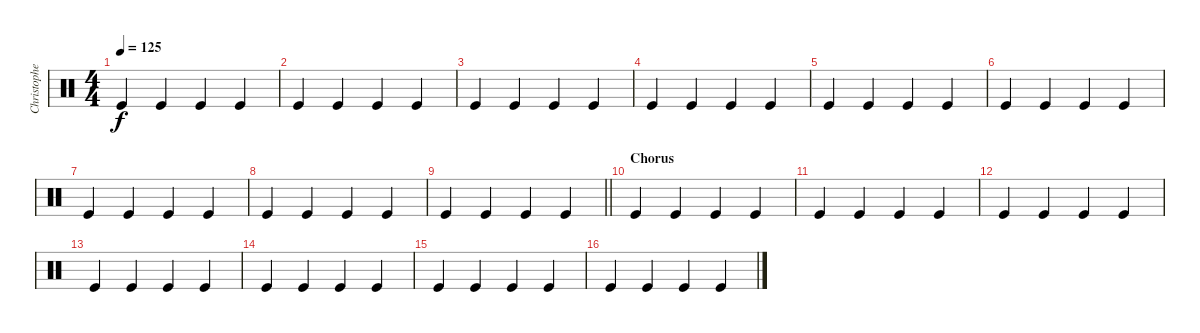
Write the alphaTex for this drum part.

\track ("Christopher - Drums" "Christophe") {instrument percussion}
\staff {score}
\articulation defaults
\ts (4 4)
\tempo 125
\clef neutral
\ks c "Kick (hit)".4{dy f} "Kick (hit)".4 "Kick (hit)".4 "Kick (hit)".4
|
"Kick (hit)".4 "Kick (hit)".4 "Kick (hit)".4 "Kick (hit)".4 |
"Kick (hit)".4 "Kick (hit)".4 "Kick (hit)".4 "Kick (hit)".4 |
"Kick (hit)".4 "Kick (hit)".4 "Kick (hit)".4 "Kick (hit)".4 |
"Kick (hit)".4 "Kick (hit)".4 "Kick (hit)".4 "Kick (hit)".4 |
"Kick (hit)".4 "Kick (hit)".4 "Kick (hit)".4 "Kick (hit)".4 |
"Kick (hit)".4 "Kick (hit)".4 "Kick (hit)".4 "Kick (hit)".4 |
"Kick (hit)".4 "Kick (hit)".4 "Kick (hit)".4 "Kick (hit)".4 |
\barLineRight lightlight "Kick (hit)".4 "Kick (hit)".4 "Kick (hit)".4 "Kick (hit)".4
|
\section ("" "Chorus")
"Kick (hit)".4 "Kick (hit)".4 "Kick (hit)".4 "Kick (hit)".4 |
"Kick (hit)".4 "Kick (hit)".4 "Kick (hit)".4 "Kick (hit)".4 |
"Kick (hit)".4 "Kick (hit)".4 "Kick (hit)".4 "Kick (hit)".4 |
"Kick (hit)".4 "Kick (hit)".4 "Kick (hit)".4 "Kick (hit)".4 |
"Kick (hit)".4 "Kick (hit)".4 "Kick (hit)".4 "Kick (hit)".4 |
"Kick (hit)".4 "Kick (hit)".4 "Kick (hit)".4 "Kick (hit)".4 |
"Kick (hit)".4 "Kick (hit)".4 "Kick (hit)".4 "Kick (hit)".4
